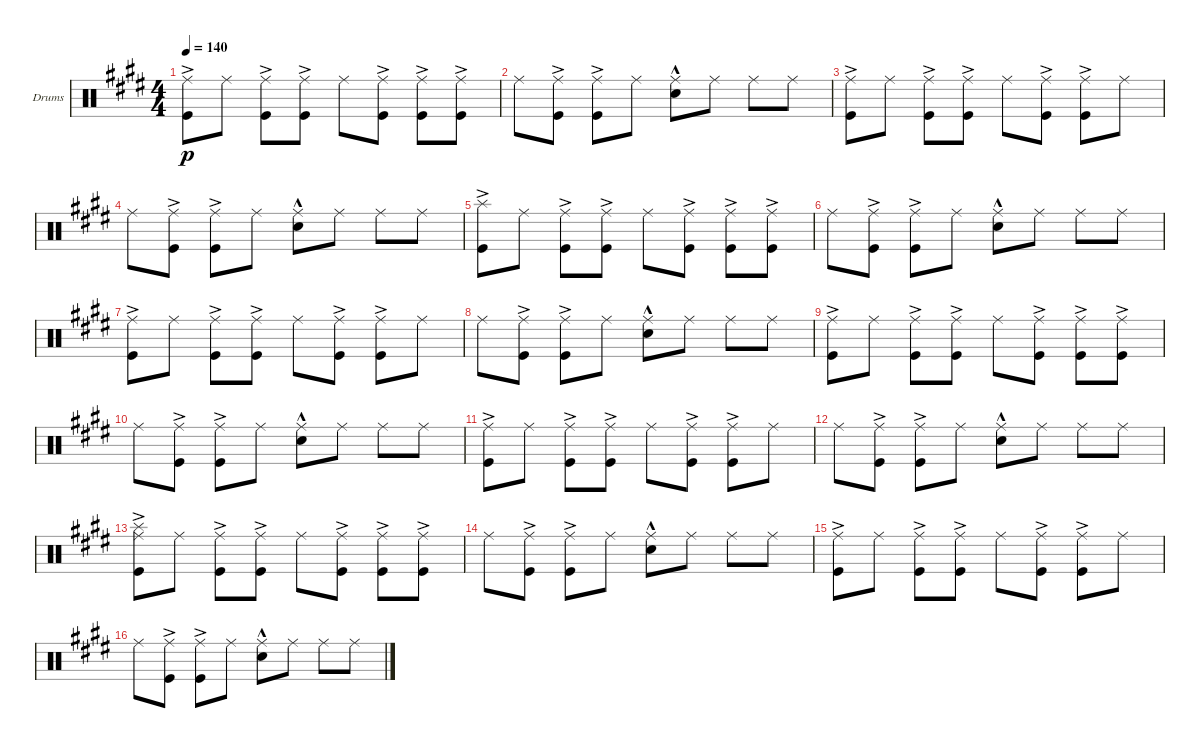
\defaultSystemsLayout 4
\bracketExtendMode groupsimilarinstruments
\firstSystemTrackNameOrientation horizontal
\otherSystemsTrackNameOrientation horizontal
\track ("Drumkit" "Drums") {instrument percussion}
\staff {score}
\articulation defaults
\ts (4 4)
\tempo 140
\clef neutral
\ks e
("Kick (hit)"{ac} "Ride (middle)").8{dy p} "Ride (middle)".8 ("Kick (hit)"{ac} "Ride (middle)").8 ("Kick (hit)"{ac} "Ride (middle)").8 "Ride (middle)".8 ("Kick (hit)"{ac} "Ride (middle)").8 ("Kick (hit)"{ac} "Ride (middle)").8 ("Kick (hit)"{ac} "Ride (middle)").8 |
"Ride (middle)".8 ("Kick (hit)"{ac} "Ride (middle)").8 ("Kick (hit)"{ac} "Ride (middle)").8 "Ride (middle)".8 ("Snare (hit) 2"{hac} "Ride (middle)").8 "Ride (middle)".8 "Ride (middle)".8 "Ride (middle)".8 |
("Kick (hit)"{ac} "Ride (middle)").8 "Ride (middle)".8 ("Kick (hit)"{ac} "Ride (middle)").8 ("Kick (hit)"{ac} "Ride (middle)").8 "Ride (middle)".8 ("Kick (hit)"{ac} "Ride (middle)").8 ("Kick (hit)"{ac} "Ride (middle)").8 "Ride (middle)".8 |
"Ride (middle)".8 ("Kick (hit)"{ac} "Ride (middle)").8 ("Kick (hit)"{ac} "Ride (middle)").8 "Ride (middle)".8 ("Snare (hit) 2"{hac} "Ride (middle)").8 "Ride (middle)".8 "Ride (middle)".8 "Ride (middle)".8 |
("Splash (hit)" "Kick (hit)"{ac}).8 "Ride (middle)".8 ("Kick (hit)"{ac} "Ride (middle)").8 ("Kick (hit)"{ac} "Ride (middle)").8 "Ride (middle)".8 ("Kick (hit)"{ac} "Ride (middle)").8 ("Kick (hit)"{ac} "Ride (middle)").8 ("Kick (hit)"{ac} "Ride (middle)").8 |
"Ride (middle)".8 ("Kick (hit)"{ac} "Ride (middle)").8 ("Kick (hit)"{ac} "Ride (middle)").8 "Ride (middle)".8 ("Snare (hit) 2"{hac} "Ride (middle)").8 "Ride (middle)".8 "Ride (middle)".8 "Ride (middle)".8 |
("Kick (hit)"{ac} "Ride (middle)").8 "Ride (middle)".8 ("Kick (hit)"{ac} "Ride (middle)").8 ("Kick (hit)"{ac} "Ride (middle)").8 "Ride (middle)".8 ("Kick (hit)"{ac} "Ride (middle)").8 ("Kick (hit)"{ac} "Ride (middle)").8 "Ride (middle)".8 |
"Ride (middle)".8 ("Kick (hit)"{ac} "Ride (middle)").8 ("Kick (hit)"{ac} "Ride (middle)").8 "Ride (middle)".8 ("Snare (hit) 2"{hac} "Ride (middle)").8 "Ride (middle)".8 "Ride (middle)".8 "Ride (middle)".8 |
("Kick (hit)"{ac} "Ride (middle)").8 "Ride (middle)".8 ("Kick (hit)"{ac} "Ride (middle)").8 ("Kick (hit)"{ac} "Ride (middle)").8 "Ride (middle)".8 ("Kick (hit)"{ac} "Ride (middle)").8 ("Kick (hit)"{ac} "Ride (middle)").8 ("Kick (hit)"{ac} "Ride (middle)").8 |
"Ride (middle)".8 ("Kick (hit)"{ac} "Ride (middle)").8 ("Kick (hit)"{ac} "Ride (middle)").8 "Ride (middle)".8 ("Snare (hit) 2"{hac} "Ride (middle)").8 "Ride (middle)".8 "Ride (middle)".8 "Ride (middle)".8 |
("Kick (hit)"{ac} "Ride (middle)").8 "Ride (middle)".8 ("Kick (hit)"{ac} "Ride (middle)").8 ("Kick (hit)"{ac} "Ride (middle)").8 "Ride (middle)".8 ("Kick (hit)"{ac} "Ride (middle)").8 ("Kick (hit)"{ac} "Ride (middle)").8 "Ride (middle)".8 |
"Ride (middle)".8 ("Kick (hit)"{ac} "Ride (middle)").8 ("Kick (hit)"{ac} "Ride (middle)").8 "Ride (middle)".8 ("Snare (hit) 2"{hac} "Ride (middle)").8 "Ride (middle)".8 "Ride (middle)".8 "Ride (middle)".8 |
("Splash (hit)" "Kick (hit)"{ac} "Ride (middle)").8 "Ride (middle)".8 ("Kick (hit)"{ac} "Ride (middle)").8 ("Kick (hit)"{ac} "Ride (middle)").8 "Ride (middle)".8 ("Kick (hit)"{ac} "Ride (middle)").8 ("Kick (hit)"{ac} "Ride (middle)").8 ("Kick (hit)"{ac} "Ride (middle)").8 |
"Ride (middle)".8 ("Kick (hit)"{ac} "Ride (middle)").8 ("Kick (hit)"{ac} "Ride (middle)").8 "Ride (middle)".8 ("Snare (hit) 2"{hac} "Ride (middle)").8 "Ride (middle)".8 "Ride (middle)".8 "Ride (middle)".8 |
("Kick (hit)"{ac} "Ride (middle)").8 "Ride (middle)".8 ("Kick (hit)"{ac} "Ride (middle)").8 ("Kick (hit)"{ac} "Ride (middle)").8 "Ride (middle)".8 ("Kick (hit)"{ac} "Ride (middle)").8 ("Kick (hit)"{ac} "Ride (middle)").8 "Ride (middle)".8 |
"Ride (middle)".8 ("Kick (hit)"{ac} "Ride (middle)").8 ("Kick (hit)"{ac} "Ride (middle)").8 "Ride (middle)".8 ("Snare (hit) 2"{hac} "Ride (middle)").8 "Ride (middle)".8 "Ride (middle)".8 "Ride (middle)".8
